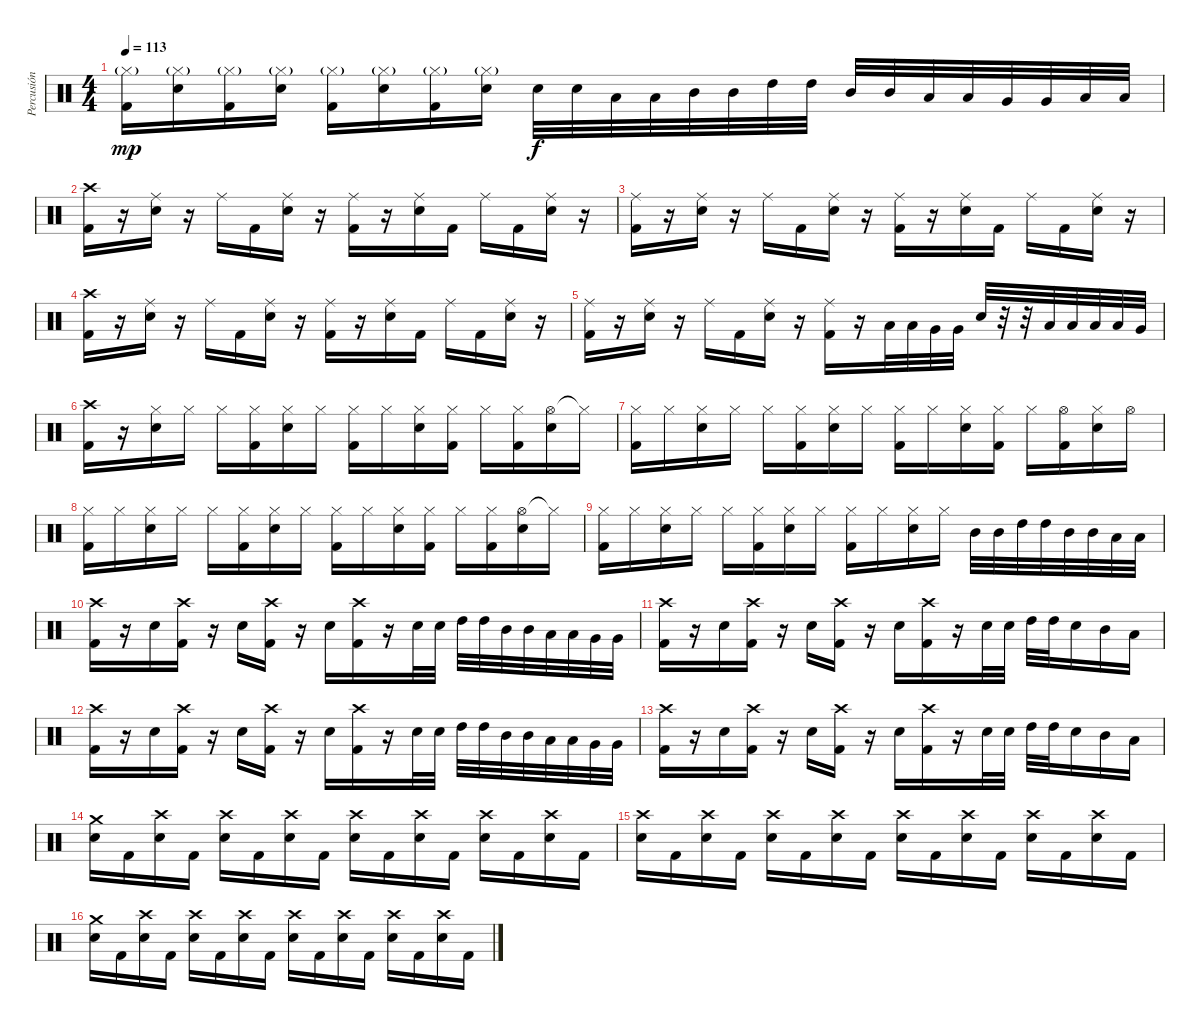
\track ("Percusión" "Percusión") {instrument percussion}
\staff {score}
\articulation defaults
\ts (4 4)
\tempo 113
\clef neutral
\ks c
("Hi-Hat (closed)"{g} "Kick (hit) 2").16{dy mp} ("Hi-Hat (closed)"{g} "Electric Snare (hit)").16 ("Hi-Hat (closed)"{g} "Kick (hit) 2").16 ("Hi-Hat (closed)"{g} "Electric Snare (hit)").16 ("Hi-Hat (closed)"{g} "Kick (hit) 2").16 ("Hi-Hat (closed)"{g} "Electric Snare (hit)").16 ("Hi-Hat (closed)"{g} "Kick (hit) 2").16 ("Hi-Hat (closed)"{g} "Electric Snare (hit)").16 "Electric Snare (hit)".32{dy f} "Electric Snare (hit)".32 "Low Tom (hit)".32 "Low Tom (hit)".32 "Mid Tom (hit)".32 "Mid Tom (hit)".32 "High Tom (hit)".32 "High Tom (hit)".32 "Mid Tom (hit)".32 "Mid Tom (hit)".32 "Low Tom (hit)".32 "Low Tom (hit)".32 "Very Low Tom (hit)".32 "Very Low Tom (hit)".32 "Low Floor Tom (hit)".32 "Low Floor Tom (hit)".32 |
("Crash high (hit)" "Kick (hit) 2").16 r.16 ("Ride (middle)" "Electric Snare (hit)").16 r.16 "Ride (middle)".16 "Kick (hit) 2".16 ("Ride (middle)" "Electric Snare (hit)").16 r.16 ("Ride (middle)" "Kick (hit) 2").16 r.16 ("Ride (middle)" "Electric Snare (hit)").16 "Kick (hit) 2".16 "Ride (middle)".16 "Kick (hit) 2".16 ("Ride (middle)" "Electric Snare (hit)").16 r.16 |
("Ride (middle)" "Kick (hit) 2").16 r.16 ("Ride (middle)" "Electric Snare (hit)").16 r.16 "Ride (middle)".16 "Kick (hit) 2".16 ("Ride (middle)" "Electric Snare (hit)").16 r.16 ("Ride (middle)" "Kick (hit) 2").16 r.16 ("Ride (middle)" "Electric Snare (hit)").16 "Kick (hit) 2".16 "Ride (middle)".16 "Kick (hit) 2".16 ("Ride (middle)" "Electric Snare (hit)").16 r.16 |
("Crash high (hit)" "Kick (hit) 2").16 r.16 ("Ride (middle)" "Electric Snare (hit)").16 r.16 "Ride (middle)".16 "Kick (hit) 2".16 ("Ride (middle)" "Electric Snare (hit)").16 r.16 ("Ride (middle)" "Kick (hit) 2").16 r.16 ("Ride (middle)" "Electric Snare (hit)").16 "Kick (hit) 2".16 "Ride (middle)".16 "Kick (hit) 2".16 ("Ride (middle)" "Electric Snare (hit)").16 r.16 |
("Ride (middle)" "Kick (hit) 2").16 r.16 ("Ride (middle)" "Electric Snare (hit)").16 r.16 "Ride (middle)".16 "Kick (hit) 2".16 ("Ride (middle)" "Electric Snare (hit)").16 r.16 ("Ride (middle)" "Kick (hit) 2").16 r.16 "Low Tom (hit)".32 "Low Tom (hit)".32 "Very Low Tom (hit)".32 "Very Low Tom (hit)".32 "Electric Snare (hit)".32 r.32 r.32 "Low Floor Tom (hit)".32 "Low Floor Tom (hit)".32 "Low Tom (hit)".32 "Low Tom (hit)".32 "Very Low Tom (hit)".32 |
("Crash high (hit)" "Kick (hit) 2").16 r.16 ("Hi-Hat (closed)" "Electric Snare (hit)").16 "Hi-Hat (closed)".16 "Hi-Hat (closed)".16 ("Hi-Hat (closed)" "Kick (hit) 2").16 ("Hi-Hat (closed)" "Electric Snare (hit)").16 "Hi-Hat (closed)".16 ("Hi-Hat (closed)" "Kick (hit) 2").16 "Hi-Hat (closed)".16 ("Hi-Hat (closed)" "Electric Snare (hit)").16 ("Hi-Hat (closed)" "Kick (hit) 2").16 "Hi-Hat (closed)".16 ("Hi-Hat (closed)" "Kick (hit) 2").16 ("Hi-Hat (open)" "Electric Snare (hit)").16 "Hi-Hat (closed)"{t}.16 |
("Hi-Hat (closed)" "Kick (hit) 2").16 "Hi-Hat (closed)".16 ("Hi-Hat (closed)" "Electric Snare (hit)").16 "Hi-Hat (closed)".16 "Hi-Hat (closed)".16 ("Hi-Hat (closed)" "Kick (hit) 2").16 ("Hi-Hat (closed)" "Electric Snare (hit)").16 "Hi-Hat (closed)".16 ("Hi-Hat (closed)" "Kick (hit) 2").16 "Hi-Hat (closed)".16 ("Hi-Hat (closed)" "Electric Snare (hit)").16 ("Hi-Hat (closed)" "Kick (hit) 2").16 "Hi-Hat (closed)".16 ("Hi-Hat (open)" "Kick (hit) 2").16 ("Hi-Hat (closed)" "Electric Snare (hit)").16 "Hi-Hat (open)".16 |
("Hi-Hat (closed)" "Kick (hit) 2").16 "Hi-Hat (closed)".16 ("Hi-Hat (closed)" "Electric Snare (hit)").16 "Hi-Hat (closed)".16 "Hi-Hat (closed)".16 ("Hi-Hat (closed)" "Kick (hit) 2").16 ("Hi-Hat (closed)" "Electric Snare (hit)").16 "Hi-Hat (closed)".16 ("Hi-Hat (closed)" "Kick (hit) 2").16 "Hi-Hat (closed)".16 ("Hi-Hat (closed)" "Electric Snare (hit)").16 ("Hi-Hat (closed)" "Kick (hit) 2").16 "Hi-Hat (closed)".16 ("Hi-Hat (closed)" "Kick (hit) 2").16 ("Hi-Hat (open)" "Electric Snare (hit)").16 "Hi-Hat (closed)"{t}.16 |
("Hi-Hat (closed)" "Kick (hit) 2").16 "Hi-Hat (closed)".16 ("Hi-Hat (closed)" "Electric Snare (hit)").16 "Hi-Hat (closed)".16 "Hi-Hat (closed)".16 ("Hi-Hat (closed)" "Kick (hit) 2").16 ("Hi-Hat (closed)" "Electric Snare (hit)").16 "Hi-Hat (closed)".16 ("Hi-Hat (closed)" "Kick (hit) 2").16 "Hi-Hat (closed)".16 ("Hi-Hat (closed)" "Electric Snare (hit)").16 "Hi-Hat (closed)".16 "Mid Tom (hit)".32 "Mid Tom (hit)".32 "High Tom (hit)".32 "High Tom (hit)".32 "Mid Tom (hit)".32 "Mid Tom (hit)".32 "Low Tom (hit)".32 "Low Tom (hit)".32 |
("Crash high (hit)" "Kick (hit) 2").16 r.16 "Electric Snare (hit)".16 ("Crash high (hit)" "Kick (hit) 2").16 r.16 "Electric Snare (hit)".16 ("Crash high (hit)" "Kick (hit) 2").16 r.16 "Electric Snare (hit)".16 ("Crash high (hit)" "Kick (hit) 2").16 r.16 "Electric Snare (hit)".32 "Electric Snare (hit)".32 "High Tom (hit)".32 "High Tom (hit)".32 "Mid Tom (hit)".32 "Mid Tom (hit)".32 "Low Tom (hit)".32 "Low Tom (hit)".32 "Very Low Tom (hit)".32 "Very Low Tom (hit)".32 |
("Crash high (hit)" "Kick (hit) 2").16 r.16 "Electric Snare (hit)".16 ("Crash high (hit)" "Kick (hit) 2").16 r.16 "Electric Snare (hit)".16 ("Crash high (hit)" "Kick (hit) 2").16 r.16 "Electric Snare (hit)".16 ("Crash high (hit)" "Kick (hit) 2").16 r.16 "Electric Snare (hit)".32 "Electric Snare (hit)".32 "High Tom (hit)".32 "High Tom (hit)".32 "Electric Snare (hit)".16 "Mid Tom (hit)".16 "Low Tom (hit)".16 |
("Crash high (hit)" "Kick (hit) 2").16 r.16 "Electric Snare (hit)".16 ("Crash high (hit)" "Kick (hit) 2").16 r.16 "Electric Snare (hit)".16 ("Crash high (hit)" "Kick (hit) 2").16 r.16 "Electric Snare (hit)".16 ("Crash high (hit)" "Kick (hit) 2").16 r.16 "Electric Snare (hit)".32 "Electric Snare (hit)".32 "High Tom (hit)".32 "High Tom (hit)".32 "Mid Tom (hit)".32 "Mid Tom (hit)".32 "Low Tom (hit)".32 "Low Tom (hit)".32 "Very Low Tom (hit)".32 "Very Low Tom (hit)".32 |
("Crash high (hit)" "Kick (hit) 2").16 r.16 "Electric Snare (hit)".16 ("Crash high (hit)" "Kick (hit) 2").16 r.16 "Electric Snare (hit)".16 ("Crash high (hit)" "Kick (hit) 2").16 r.16 "Electric Snare (hit)".16 ("Crash high (hit)" "Kick (hit) 2").16 r.16 "Electric Snare (hit)".32 "Electric Snare (hit)".32 "High Tom (hit)".32 "High Tom (hit)".32 "Electric Snare (hit)".16 "Mid Tom (hit)".16 "Low Tom (hit)".16 |
("Crash medium (hit)" "Electric Snare (hit)").16 "Kick (hit) 2".16 ("Crash high (hit)" "Electric Snare (hit)").16 "Kick (hit) 2".16 ("Crash high (hit)" "Electric Snare (hit)").16 "Kick (hit) 2".16 ("Crash high (hit)" "Electric Snare (hit)").16 "Kick (hit) 2".16 ("Crash high (hit)" "Electric Snare (hit)").16 "Kick (hit) 2".16 ("Crash high (hit)" "Electric Snare (hit)").16 "Kick (hit) 2".16 ("Crash high (hit)" "Electric Snare (hit)").16 "Kick (hit) 2".16 ("Crash high (hit)" "Electric Snare (hit)").16 "Kick (hit) 2".16 |
("Crash high (hit)" "Electric Snare (hit)").16 "Kick (hit) 2".16 ("Crash high (hit)" "Electric Snare (hit)").16 "Kick (hit) 2".16 ("Crash high (hit)" "Electric Snare (hit)").16 "Kick (hit) 2".16 ("Crash high (hit)" "Electric Snare (hit)").16 "Kick (hit) 2".16 ("Crash high (hit)" "Electric Snare (hit)").16 "Kick (hit) 2".16 ("Crash high (hit)" "Electric Snare (hit)").16 "Kick (hit) 2".16 ("Crash high (hit)" "Electric Snare (hit)").16 "Kick (hit) 2".16 ("Crash high (hit)" "Electric Snare (hit)").16 "Kick (hit) 2".16 |
("Crash medium (hit)" "Electric Snare (hit)").16 "Kick (hit) 2".16 ("Crash high (hit)" "Electric Snare (hit)").16 "Kick (hit) 2".16 ("Crash high (hit)" "Electric Snare (hit)").16 "Kick (hit) 2".16 ("Crash high (hit)" "Electric Snare (hit)").16 "Kick (hit) 2".16 ("Crash high (hit)" "Electric Snare (hit)").16 "Kick (hit) 2".16 ("Crash high (hit)" "Electric Snare (hit)").16 "Kick (hit) 2".16 ("Crash high (hit)" "Electric Snare (hit)").16 "Kick (hit) 2".16 ("Crash high (hit)" "Electric Snare (hit)").16 "Kick (hit) 2".16
